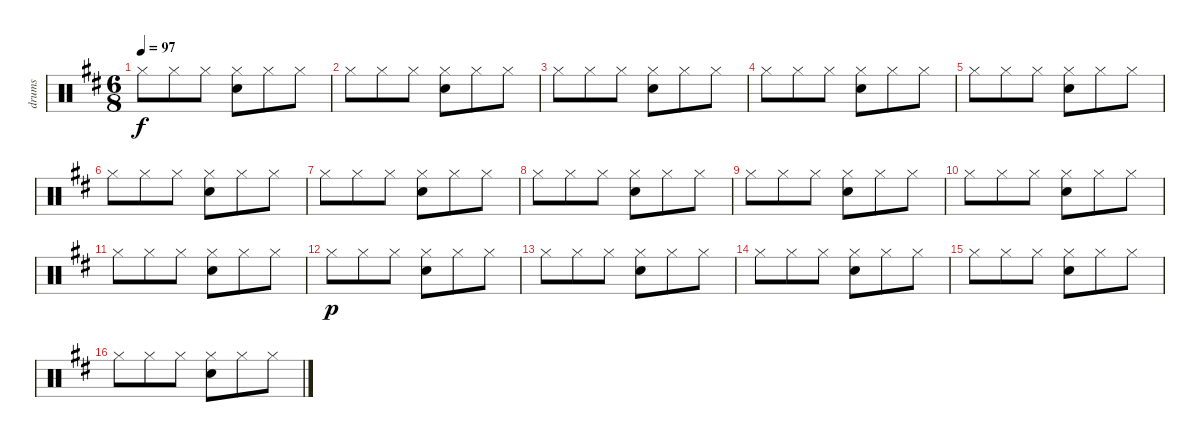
\track ("drums" "drums") {instrument percussion}
\staff {score}
\articulation defaults
\ts (6 8)
\tempo 97
\clef neutral
\ks d "Hi-Hat (closed)".8{dy f} "Hi-Hat (closed)".8 "Hi-Hat (closed)".8
("Hi-Hat (closed)" "Electric Snare (hit)").8 "Hi-Hat (closed)".8 "Hi-Hat (closed)".8 |
"Hi-Hat (closed)".8 "Hi-Hat (closed)".8 "Hi-Hat (closed)".8 ("Hi-Hat (closed)" "Electric Snare (hit)").8 "Hi-Hat (closed)".8 "Hi-Hat (closed)".8 |
"Hi-Hat (closed)".8 "Hi-Hat (closed)".8 "Hi-Hat (closed)".8 ("Hi-Hat (closed)" "Electric Snare (hit)").8 "Hi-Hat (closed)".8 "Hi-Hat (closed)".8 |
"Hi-Hat (closed)".8 "Hi-Hat (closed)".8 "Hi-Hat (closed)".8 ("Hi-Hat (closed)" "Electric Snare (hit)").8 "Hi-Hat (closed)".8 "Hi-Hat (closed)".8 |
"Hi-Hat (closed)".8 "Hi-Hat (closed)".8 "Hi-Hat (closed)".8 ("Hi-Hat (closed)" "Electric Snare (hit)").8 "Hi-Hat (closed)".8 "Hi-Hat (closed)".8 |
"Hi-Hat (closed)".8 "Hi-Hat (closed)".8 "Hi-Hat (closed)".8 ("Hi-Hat (closed)" "Electric Snare (hit)").8 "Hi-Hat (closed)".8 "Hi-Hat (closed)".8 |
"Hi-Hat (closed)".8 "Hi-Hat (closed)".8 "Hi-Hat (closed)".8 ("Hi-Hat (closed)" "Electric Snare (hit)").8 "Hi-Hat (closed)".8 "Hi-Hat (closed)".8 |
"Hi-Hat (closed)".8 "Hi-Hat (closed)".8 "Hi-Hat (closed)".8 ("Hi-Hat (closed)" "Electric Snare (hit)").8 "Hi-Hat (closed)".8 "Hi-Hat (closed)".8 |
"Hi-Hat (closed)".8 "Hi-Hat (closed)".8 "Hi-Hat (closed)".8 ("Hi-Hat (closed)" "Electric Snare (hit)").8 "Hi-Hat (closed)".8 "Hi-Hat (closed)".8 |
"Hi-Hat (closed)".8 "Hi-Hat (closed)".8 "Hi-Hat (closed)".8 ("Hi-Hat (closed)" "Electric Snare (hit)").8 "Hi-Hat (closed)".8 "Hi-Hat (closed)".8 |
"Hi-Hat (closed)".8 "Hi-Hat (closed)".8 "Hi-Hat (closed)".8 ("Hi-Hat (closed)" "Electric Snare (hit)").8 "Hi-Hat (closed)".8 "Hi-Hat (closed)".8 |
"Hi-Hat (closed)".8{dy p} "Hi-Hat (closed)".8 "Hi-Hat (closed)".8 ("Hi-Hat (closed)" "Electric Snare (hit)").8 "Hi-Hat (closed)".8 "Hi-Hat (closed)".8 |
"Hi-Hat (closed)".8 "Hi-Hat (closed)".8 "Hi-Hat (closed)".8 ("Hi-Hat (closed)" "Electric Snare (hit)").8 "Hi-Hat (closed)".8 "Hi-Hat (closed)".8 |
"Hi-Hat (closed)".8 "Hi-Hat (closed)".8 "Hi-Hat (closed)".8 ("Hi-Hat (closed)" "Electric Snare (hit)").8 "Hi-Hat (closed)".8 "Hi-Hat (closed)".8 |
"Hi-Hat (closed)".8 "Hi-Hat (closed)".8 "Hi-Hat (closed)".8 ("Hi-Hat (closed)" "Electric Snare (hit)").8 "Hi-Hat (closed)".8 "Hi-Hat (closed)".8 |
"Hi-Hat (closed)".8 "Hi-Hat (closed)".8 "Hi-Hat (closed)".8 ("Hi-Hat (closed)" "Electric Snare (hit)").8 "Hi-Hat (closed)".8 "Hi-Hat (closed)".8
